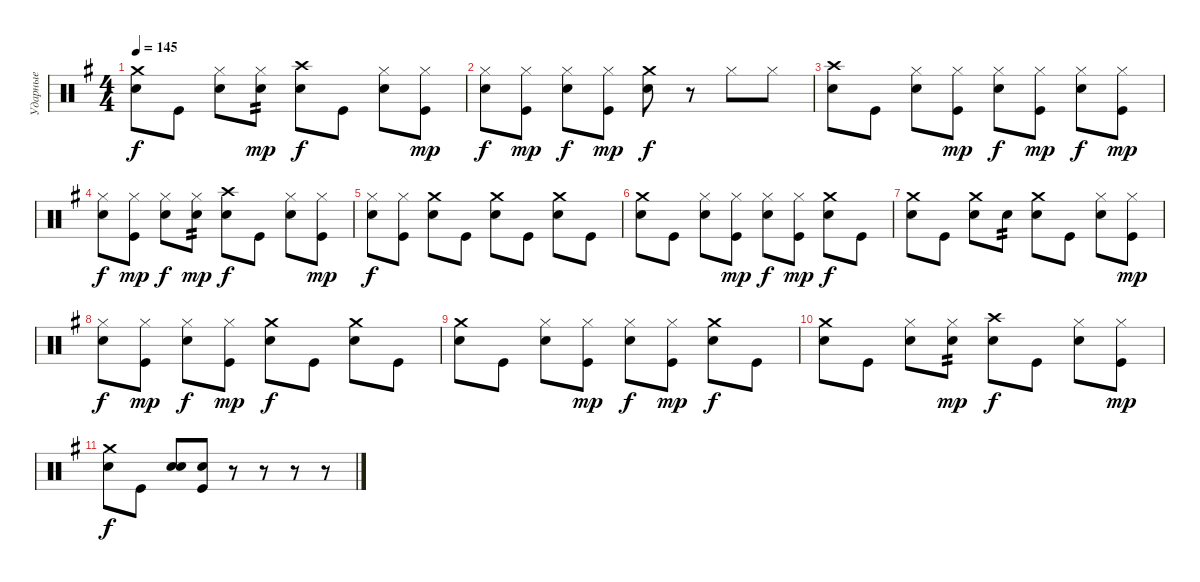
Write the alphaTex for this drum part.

\track ("Ударные" "Ударные") {instrument percussion}
\staff {score}
\articulation defaults
\ts (4 4)
\tempo 145
\clef neutral
\ks eminor
("Crash medium (hit)" "Snare (hit) 2").8{dy f} "Kick (hit)".8 ("Hi-Hat (closed)" "Snare (hit) 2").8 ("Hi-Hat (closed)" "Snare (hit) 2").8{tp 2 dy mp} ("Crash high (hit)" "Snare (hit) 2").8{dy f} "Kick (hit)".8 ("Hi-Hat (closed)" "Snare (hit) 2").8 ("Hi-Hat (closed)" "Kick (hit)").8{dy mp} |
("Hi-Hat (closed)" "Snare (hit) 2").8{dy f} ("Hi-Hat (closed)" "Kick (hit)").8{dy mp} ("Hi-Hat (closed)" "Snare (hit) 2").8{dy f} ("Hi-Hat (closed)" "Kick (hit)").8{dy mp} ("Crash medium (hit)" "Snare (hit) 2").8{dy f} r.8 "Hi-Hat (closed)".8 "Hi-Hat (closed)".8 |
("Crash high (hit)" "Snare (hit) 2").8 "Kick (hit)".8 ("Hi-Hat (closed)" "Snare (hit) 2").8 ("Hi-Hat (closed)" "Kick (hit)").8{dy mp} ("Hi-Hat (closed)" "Snare (hit) 2").8{dy f} ("Hi-Hat (closed)" "Kick (hit)").8{dy mp} ("Hi-Hat (closed)" "Snare (hit) 2").8{dy f} ("Hi-Hat (closed)" "Kick (hit)").8{dy mp} |
("Hi-Hat (closed)" "Snare (hit) 2").8{dy f} ("Hi-Hat (closed)" "Kick (hit)").8{dy mp} ("Hi-Hat (closed)" "Snare (hit) 2").8{dy f} ("Hi-Hat (closed)" "Snare (hit) 2").8{tp 2 dy mp} ("Crash high (hit)" "Snare (hit) 2").8{dy f} "Kick (hit)".8 ("Hi-Hat (closed)" "Snare (hit) 2").8 ("Hi-Hat (closed)" "Kick (hit)").8{dy mp} |
("Hi-Hat (closed)" "Snare (hit) 2").8{dy f} ("Hi-Hat (closed)" "Kick (hit)").8 ("Crash medium (hit)" "Snare (hit) 2").8 "Kick (hit)".8 ("Crash medium (hit)" "Snare (hit) 2").8 "Kick (hit)".8 ("Crash medium (hit)" "Snare (hit) 2").8 "Kick (hit)".8 |
("Crash medium (hit)" "Snare (hit) 2").8 "Kick (hit)".8 ("Hi-Hat (closed)" "Snare (hit) 2").8 ("Hi-Hat (closed)" "Kick (hit)").8{dy mp} ("Hi-Hat (closed)" "Snare (hit) 2").8{dy f} ("Hi-Hat (closed)" "Kick (hit)").8{dy mp} ("Crash medium (hit)" "Snare (hit) 2").8{dy f} "Kick (hit)".8 |
("Crash medium (hit)" "Snare (hit) 2").8 "Kick (hit)".8 ("Crash medium (hit)" "Snare (hit) 2").8 "Snare (hit) 2".8{tp 2} ("Crash medium (hit)" "Snare (hit) 2").8 "Kick (hit)".8 ("Hi-Hat (closed)" "Snare (hit) 2").8 ("Hi-Hat (closed)" "Kick (hit)").8{dy mp} |
("Hi-Hat (closed)" "Snare (hit) 2").8{dy f} ("Hi-Hat (closed)" "Kick (hit)").8{dy mp} ("Hi-Hat (closed)" "Snare (hit) 2").8{dy f} ("Hi-Hat (closed)" "Kick (hit)").8{dy mp} ("Crash medium (hit)" "Snare (hit) 2").8{dy f} "Kick (hit)".8 ("Crash medium (hit)" "Snare (hit) 2").8 "Kick (hit)".8 |
("Crash medium (hit)" "Snare (hit) 2").8 "Kick (hit)".8 ("Hi-Hat (closed)" "Snare (hit) 2").8 ("Hi-Hat (closed)" "Kick (hit)").8{dy mp} ("Hi-Hat (closed)" "Snare (hit) 2").8{dy f} ("Hi-Hat (closed)" "Kick (hit)").8{dy mp} ("Crash medium (hit)" "Snare (hit) 2").8{dy f} "Kick (hit)".8 |
("Crash medium (hit)" "Snare (hit) 2").8 "Kick (hit)".8 ("Hi-Hat (closed)" "Snare (hit) 2").8 ("Hi-Hat (closed)" "Snare (hit) 2").8{tp 2 dy mp} ("Crash high (hit)" "Snare (hit) 2").8{dy f} "Kick (hit)".8 ("Hi-Hat (closed)" "Snare (hit) 2").8 ("Hi-Hat (closed)" "Kick (hit)").8{dy mp} |
("Crash medium (hit)" "Snare (hit) 2").8{dy f} "Kick (hit)".8 ("Hand Clap (hit)" "Snare (hit) 2").8 ("Hand Clap (hit)" "Kick (hit)").8 r.8 r.8 r.8 r.8
